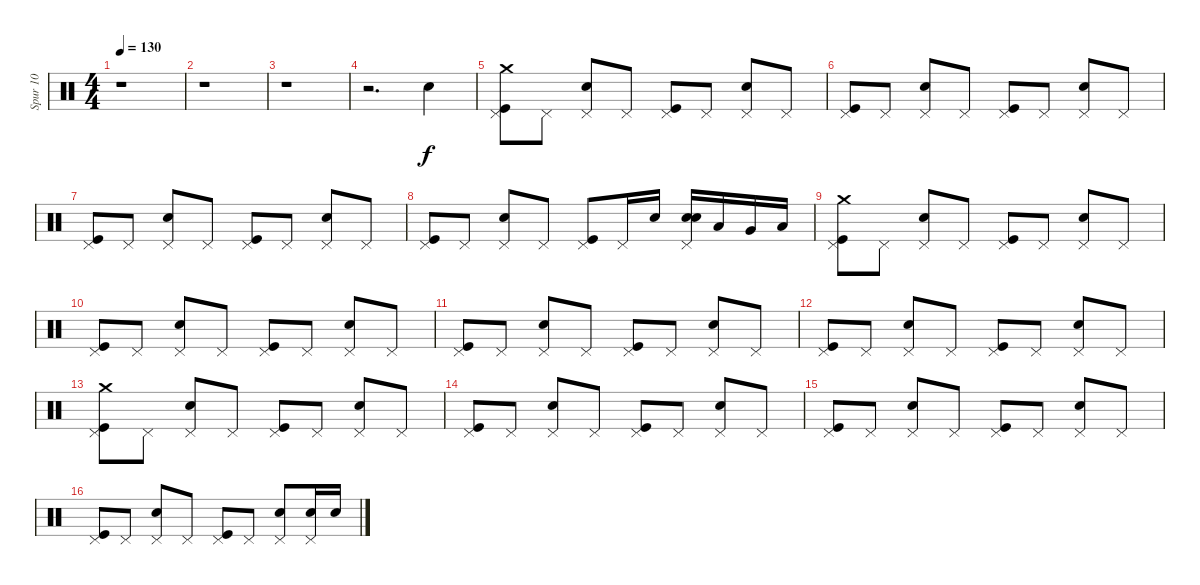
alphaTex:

\track ("Spur 10" "Spur 10") {instrument percussion}
\staff {score}
\articulation defaults
\ts (4 4)
\tempo 130
\clef neutral
\ks c
r.1{dy f} |
r.1 |
r.1 |
r.2{d} "Electric Snare (hit)".4 |
("Pedal Hi-Hat (hit)" "Kick (hit)" "Crash medium (hit)").8 "Pedal Hi-Hat (hit)".8 ("Pedal Hi-Hat (hit)" "Electric Snare (hit)").8 "Pedal Hi-Hat (hit)".8 ("Pedal Hi-Hat (hit)" "Kick (hit)").8 "Pedal Hi-Hat (hit)".8 ("Pedal Hi-Hat (hit)" "Electric Snare (hit)").8 "Pedal Hi-Hat (hit)".8 |
("Pedal Hi-Hat (hit)" "Kick (hit)").8 "Pedal Hi-Hat (hit)".8 ("Pedal Hi-Hat (hit)" "Electric Snare (hit)").8 "Pedal Hi-Hat (hit)".8 ("Pedal Hi-Hat (hit)" "Kick (hit)").8 "Pedal Hi-Hat (hit)".8 ("Pedal Hi-Hat (hit)" "Electric Snare (hit)").8 "Pedal Hi-Hat (hit)".8 |
("Pedal Hi-Hat (hit)" "Kick (hit)").8 "Pedal Hi-Hat (hit)".8 ("Pedal Hi-Hat (hit)" "Electric Snare (hit)").8 "Pedal Hi-Hat (hit)".8 ("Pedal Hi-Hat (hit)" "Kick (hit)").8 "Pedal Hi-Hat (hit)".8 ("Pedal Hi-Hat (hit)" "Electric Snare (hit)").8 "Pedal Hi-Hat (hit)".8 |
("Pedal Hi-Hat (hit)" "Kick (hit)").8 "Pedal Hi-Hat (hit)".8 ("Pedal Hi-Hat (hit)" "Electric Snare (hit)").8 "Pedal Hi-Hat (hit)".8 ("Pedal Hi-Hat (hit)" "Kick (hit)").8 "Pedal Hi-Hat (hit)".16 "Electric Snare (hit)".16 ("Electric Snare (hit)" "Pedal Hi-Hat (hit)" "Electric Snare (hit)").16 "Low Tom (hit)".16 "Very Low Tom (hit)".16 "Low Floor Tom (hit)".16 |
("Pedal Hi-Hat (hit)" "Kick (hit)" "Crash medium (hit)").8 "Pedal Hi-Hat (hit)".8 ("Pedal Hi-Hat (hit)" "Electric Snare (hit)").8 "Pedal Hi-Hat (hit)".8 ("Pedal Hi-Hat (hit)" "Kick (hit)").8 "Pedal Hi-Hat (hit)".8 ("Pedal Hi-Hat (hit)" "Electric Snare (hit)").8 "Pedal Hi-Hat (hit)".8 |
("Pedal Hi-Hat (hit)" "Kick (hit)").8 "Pedal Hi-Hat (hit)".8 ("Pedal Hi-Hat (hit)" "Electric Snare (hit)").8 "Pedal Hi-Hat (hit)".8 ("Pedal Hi-Hat (hit)" "Kick (hit)").8 "Pedal Hi-Hat (hit)".8 ("Pedal Hi-Hat (hit)" "Electric Snare (hit)").8 "Pedal Hi-Hat (hit)".8 |
("Pedal Hi-Hat (hit)" "Kick (hit)").8 "Pedal Hi-Hat (hit)".8 ("Pedal Hi-Hat (hit)" "Electric Snare (hit)").8 "Pedal Hi-Hat (hit)".8 ("Pedal Hi-Hat (hit)" "Kick (hit)").8 "Pedal Hi-Hat (hit)".8 ("Pedal Hi-Hat (hit)" "Electric Snare (hit)").8 "Pedal Hi-Hat (hit)".8 |
("Pedal Hi-Hat (hit)" "Kick (hit)").8 "Pedal Hi-Hat (hit)".8 ("Pedal Hi-Hat (hit)" "Electric Snare (hit)").8 "Pedal Hi-Hat (hit)".8 ("Pedal Hi-Hat (hit)" "Kick (hit)").8 "Pedal Hi-Hat (hit)".8 ("Pedal Hi-Hat (hit)" "Electric Snare (hit)").8 "Pedal Hi-Hat (hit)".8 |
("Pedal Hi-Hat (hit)" "Kick (hit)" "Crash medium (hit)").8 "Pedal Hi-Hat (hit)".8 ("Pedal Hi-Hat (hit)" "Electric Snare (hit)").8 "Pedal Hi-Hat (hit)".8 ("Pedal Hi-Hat (hit)" "Kick (hit)").8 "Pedal Hi-Hat (hit)".8 ("Pedal Hi-Hat (hit)" "Electric Snare (hit)").8 "Pedal Hi-Hat (hit)".8 |
("Pedal Hi-Hat (hit)" "Kick (hit)").8 "Pedal Hi-Hat (hit)".8 ("Pedal Hi-Hat (hit)" "Electric Snare (hit)").8 "Pedal Hi-Hat (hit)".8 ("Pedal Hi-Hat (hit)" "Kick (hit)").8 "Pedal Hi-Hat (hit)".8 ("Pedal Hi-Hat (hit)" "Electric Snare (hit)").8 "Pedal Hi-Hat (hit)".8 |
("Pedal Hi-Hat (hit)" "Kick (hit)").8 "Pedal Hi-Hat (hit)".8 ("Pedal Hi-Hat (hit)" "Electric Snare (hit)").8 "Pedal Hi-Hat (hit)".8 ("Pedal Hi-Hat (hit)" "Kick (hit)").8 "Pedal Hi-Hat (hit)".8 ("Pedal Hi-Hat (hit)" "Electric Snare (hit)").8 "Pedal Hi-Hat (hit)".8 |
("Pedal Hi-Hat (hit)" "Kick (hit)").8 "Pedal Hi-Hat (hit)".8 ("Pedal Hi-Hat (hit)" "Electric Snare (hit)").8 "Pedal Hi-Hat (hit)".8 ("Pedal Hi-Hat (hit)" "Kick (hit)").8 "Pedal Hi-Hat (hit)".8 ("Pedal Hi-Hat (hit)" "Electric Snare (hit)").8 ("Electric Snare (hit)" "Pedal Hi-Hat (hit)").16 "Electric Snare (hit)".16
